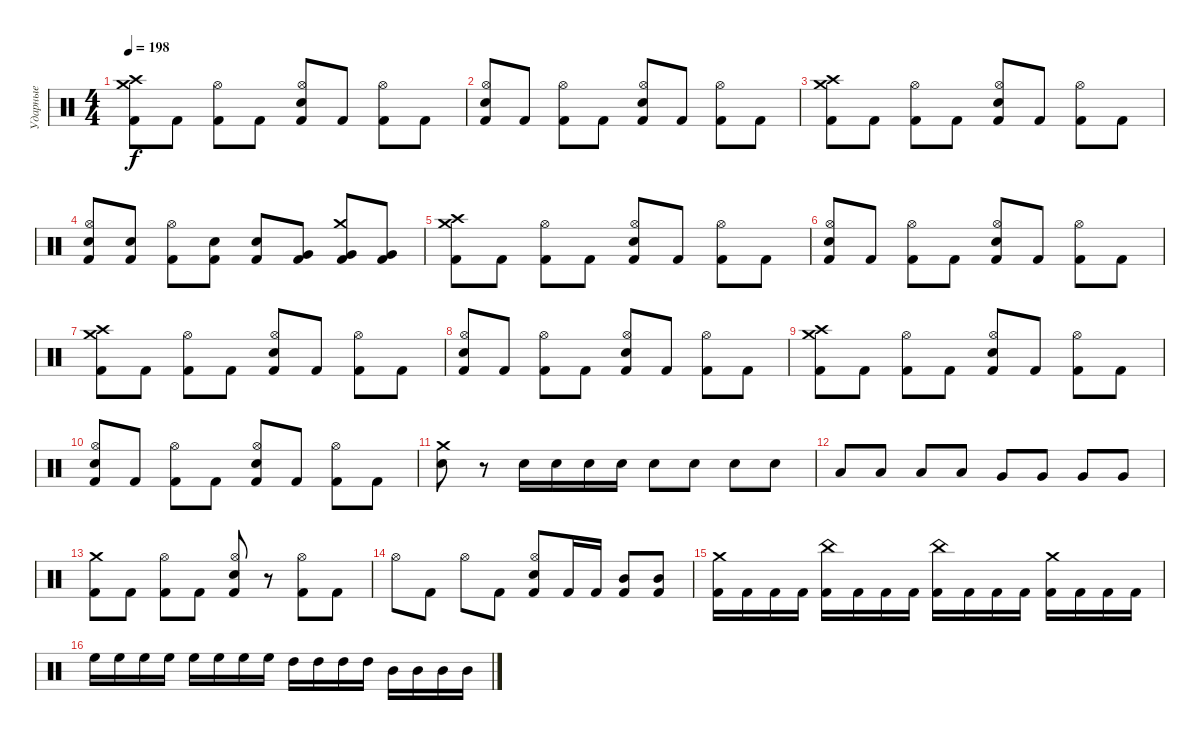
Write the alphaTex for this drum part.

\track ("Ударные" "Ударные") {instrument percussion}
\staff {score}
\articulation defaults
\ts (4 4)
\tempo 198
\clef neutral
\ks c
("Kick (hit) 2" "Crash medium (hit)" "Crash high (hit)").8{dy f} "Kick (hit) 2".8 ("Kick (hit) 2" "Hi-Hat (open)").8 "Kick (hit) 2".8 ("Kick (hit) 2" "Hi-Hat (open)" "Electric Snare (hit)").8 "Kick (hit) 2".8 ("Kick (hit) 2" "Hi-Hat (open)").8 "Kick (hit) 2".8 |
("Kick (hit) 2" "Hi-Hat (open)" "Electric Snare (hit)").8 "Kick (hit) 2".8 ("Kick (hit) 2" "Hi-Hat (open)").8 "Kick (hit) 2".8 ("Kick (hit) 2" "Hi-Hat (open)" "Electric Snare (hit)").8 "Kick (hit) 2".8 ("Kick (hit) 2" "Hi-Hat (open)").8 "Kick (hit) 2".8 |
("Kick (hit) 2" "Crash medium (hit)" "Crash high (hit)").8 "Kick (hit) 2".8 ("Kick (hit) 2" "Hi-Hat (open)").8 "Kick (hit) 2".8 ("Kick (hit) 2" "Hi-Hat (open)" "Electric Snare (hit)").8 "Kick (hit) 2".8 ("Kick (hit) 2" "Hi-Hat (open)").8 "Kick (hit) 2".8 |
("Kick (hit) 2" "Hi-Hat (open)" "Electric Snare (hit)").8 ("Kick (hit) 2" "Electric Snare (hit)").8 ("Kick (hit) 2" "Hi-Hat (open)").8 ("Kick (hit) 2" "Electric Snare (hit)").8 ("Kick (hit) 2" "Electric Snare (hit)").8 ("Kick (hit) 2" "Very Low Tom (hit)").8 ("Kick (hit) 2" "Crash medium (hit)" "Very Low Tom (hit)").8 ("Kick (hit) 2" "Very Low Tom (hit)").8 |
("Kick (hit) 2" "Crash medium (hit)" "Crash high (hit)").8 "Kick (hit) 2".8 ("Kick (hit) 2" "Hi-Hat (open)").8 "Kick (hit) 2".8 ("Kick (hit) 2" "Hi-Hat (open)" "Electric Snare (hit)").8 "Kick (hit) 2".8 ("Kick (hit) 2" "Hi-Hat (open)").8 "Kick (hit) 2".8 |
("Kick (hit) 2" "Hi-Hat (open)" "Electric Snare (hit)").8 "Kick (hit) 2".8 ("Kick (hit) 2" "Hi-Hat (open)").8 "Kick (hit) 2".8 ("Kick (hit) 2" "Hi-Hat (open)" "Electric Snare (hit)").8 "Kick (hit) 2".8 ("Kick (hit) 2" "Hi-Hat (open)").8 "Kick (hit) 2".8 |
("Kick (hit) 2" "Crash medium (hit)" "Crash high (hit)").8 "Kick (hit) 2".8 ("Kick (hit) 2" "Hi-Hat (open)").8 "Kick (hit) 2".8 ("Kick (hit) 2" "Hi-Hat (open)" "Electric Snare (hit)").8 "Kick (hit) 2".8 ("Kick (hit) 2" "Hi-Hat (open)").8 "Kick (hit) 2".8 |
("Kick (hit) 2" "Hi-Hat (open)" "Electric Snare (hit)").8 "Kick (hit) 2".8 ("Kick (hit) 2" "Hi-Hat (open)").8 "Kick (hit) 2".8 ("Kick (hit) 2" "Hi-Hat (open)" "Electric Snare (hit)").8 "Kick (hit) 2".8 ("Kick (hit) 2" "Hi-Hat (open)").8 "Kick (hit) 2".8 |
("Kick (hit) 2" "Crash medium (hit)" "Crash high (hit)").8 "Kick (hit) 2".8 ("Kick (hit) 2" "Hi-Hat (open)").8 "Kick (hit) 2".8 ("Kick (hit) 2" "Hi-Hat (open)" "Electric Snare (hit)").8 "Kick (hit) 2".8 ("Kick (hit) 2" "Hi-Hat (open)").8 "Kick (hit) 2".8 |
("Kick (hit) 2" "Hi-Hat (open)" "Electric Snare (hit)").8 "Kick (hit) 2".8 ("Kick (hit) 2" "Hi-Hat (open)").8 "Kick (hit) 2".8 ("Kick (hit) 2" "Hi-Hat (open)" "Electric Snare (hit)").8 "Kick (hit) 2".8 ("Kick (hit) 2" "Hi-Hat (open)").8 "Kick (hit) 2".8 |
("Electric Snare (hit)" "Crash medium (hit)").8 r.8 "Electric Snare (hit)".16 "Electric Snare (hit)".16 "Electric Snare (hit)".16 "Electric Snare (hit)".16 "Electric Snare (hit)".8 "Electric Snare (hit)".8 "Electric Snare (hit)".8 "Electric Snare (hit)".8 |
"Low Tom (hit)".8 "Low Tom (hit)".8 "Low Tom (hit)".8 "Low Tom (hit)".8 "Very Low Tom (hit)".8 "Very Low Tom (hit)".8 "Very Low Tom (hit)".8 "Very Low Tom (hit)".8 |
("Kick (hit) 2" "Crash medium (hit)").8 "Kick (hit) 2".8 ("Kick (hit) 2" "Hi-Hat (open)").8 "Kick (hit) 2".8 ("Kick (hit) 2" "Hi-Hat (open)" "Electric Snare (hit)").8 r.8 ("Kick (hit) 2" "Hi-Hat (open)").8 "Kick (hit) 2".8 |
"Hi-Hat (open)".8 "Kick (hit) 2".8 "Hi-Hat (open)".8 "Kick (hit) 2".8 ("Kick (hit) 2" "Hi-Hat (open)" "Electric Snare (hit)").8 "Kick (hit) 2".16 "Kick (hit) 2".16 ("Kick (hit) 2" "Mid Tom (hit)").8 ("Kick (hit) 2" "Mid Tom (hit)").8 |
("Kick (hit) 2" "Crash medium (hit)").16 "Kick (hit) 2".16 "Kick (hit) 2".16 "Kick (hit) 2".16 ("Kick (hit) 2" "China (hit)").16 "Kick (hit) 2".16 "Kick (hit) 2".16 "Kick (hit) 2".16 ("Kick (hit) 2" "China (hit)").16 "Kick (hit) 2".16 "Kick (hit) 2".16 "Kick (hit) 2".16 ("Kick (hit) 2" "Crash medium (hit)").16 "Kick (hit) 2".16 "Kick (hit) 2".16 "Kick (hit) 2".16 |
"High Floor Tom (hit)".16 "High Floor Tom (hit)".16 "High Floor Tom (hit)".16 "High Floor Tom (hit)".16 "High Floor Tom (hit)".16 "High Floor Tom (hit)".16 "High Floor Tom (hit)".16 "High Floor Tom (hit)".16 "High Tom (hit)".16 "High Tom (hit)".16 "High Tom (hit)".16 "High Tom (hit)".16 "Mid Tom (hit)".16 "Mid Tom (hit)".16 "Mid Tom (hit)".16 "Mid Tom (hit)".16
